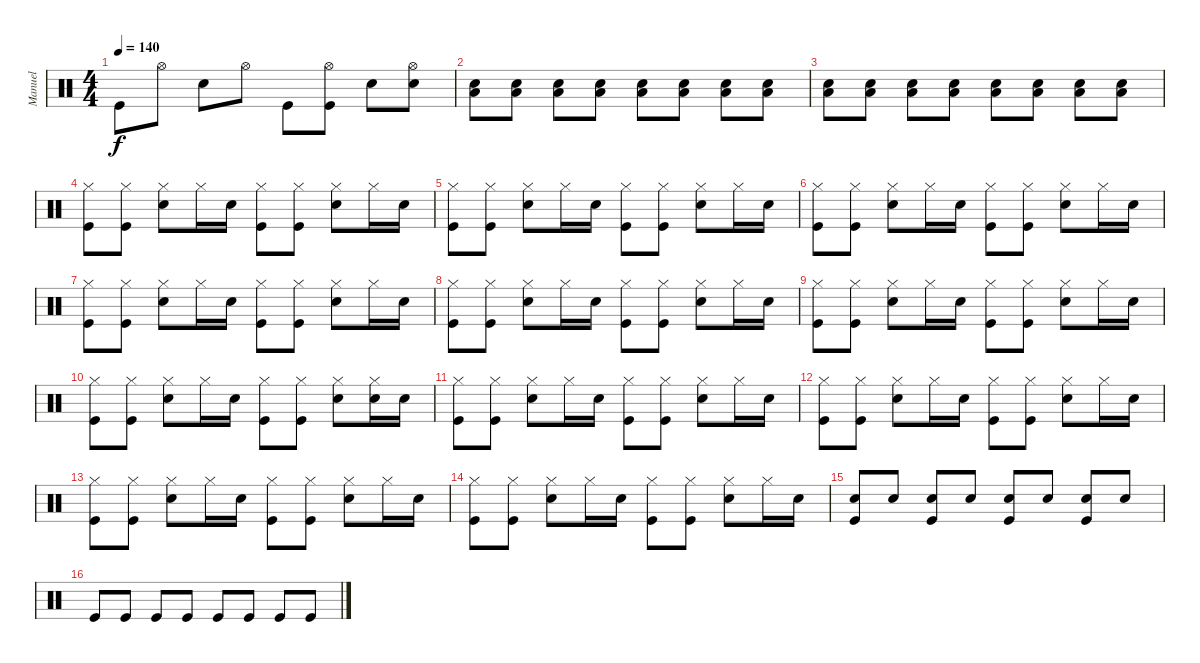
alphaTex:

\track ("Manuel" "Manuel") {instrument percussion}
\staff {score}
\articulation defaults
\ts (4 4)
\tempo 140
\clef neutral
\ks c "Kick (hit)".8{dy f} "Hi-Hat (open)".8 "Electric Snare (hit)".8 "Hi-Hat (open)".8 "Kick (hit)".8
("Kick (hit)" "Hi-Hat (open)").8 "Electric Snare (hit)".8 ("Electric Snare (hit)" "Hi-Hat (open)").8 |
("Low Tom (hit)" "Electric Snare (hit)").8 ("Low Tom (hit)" "Electric Snare (hit)").8 ("Low Tom (hit)" "Electric Snare (hit)").8 ("Low Tom (hit)" "Electric Snare (hit)").8 ("Low Tom (hit)" "Electric Snare (hit)").8 ("Low Tom (hit)" "Electric Snare (hit)").8 ("Low Tom (hit)" "Electric Snare (hit)").8 ("Low Tom (hit)" "Electric Snare (hit)").8 |
("Low Tom (hit)" "Electric Snare (hit)").8 ("Low Tom (hit)" "Electric Snare (hit)").8 ("Low Tom (hit)" "Electric Snare (hit)").8 ("Low Tom (hit)" "Electric Snare (hit)").8 ("Low Tom (hit)" "Electric Snare (hit)").8 ("Low Tom (hit)" "Electric Snare (hit)").8 ("Low Tom (hit)" "Electric Snare (hit)").8 ("Low Tom (hit)" "Electric Snare (hit)").8 |
("Hi-Hat (closed)" "Kick (hit)").8 ("Hi-Hat (closed)" "Kick (hit)").8 ("Hi-Hat (closed)" "Snare (hit) 2").8 "Hi-Hat (closed)".16 "Snare (hit) 2".16 ("Hi-Hat (closed)" "Kick (hit)").8 ("Hi-Hat (closed)" "Kick (hit)").8 ("Hi-Hat (closed)" "Snare (hit) 2").8 "Hi-Hat (closed)".16 "Snare (hit) 2".16 |
("Hi-Hat (closed)" "Kick (hit)").8 ("Hi-Hat (closed)" "Kick (hit)").8 ("Hi-Hat (closed)" "Snare (hit) 2").8 "Hi-Hat (closed)".16 "Snare (hit) 2".16 ("Hi-Hat (closed)" "Kick (hit)").8 ("Hi-Hat (closed)" "Kick (hit)").8 ("Hi-Hat (closed)" "Snare (hit) 2").8 "Hi-Hat (closed)".16 "Snare (hit) 2".16 |
("Hi-Hat (closed)" "Kick (hit)").8 ("Hi-Hat (closed)" "Kick (hit)").8 ("Hi-Hat (closed)" "Snare (hit) 2").8 "Hi-Hat (closed)".16 "Snare (hit) 2".16 ("Hi-Hat (closed)" "Kick (hit)").8 ("Hi-Hat (closed)" "Kick (hit)").8 ("Hi-Hat (closed)" "Snare (hit) 2").8 "Hi-Hat (closed)".16 "Snare (hit) 2".16 |
("Hi-Hat (closed)" "Kick (hit)").8 ("Hi-Hat (closed)" "Kick (hit)").8 ("Hi-Hat (closed)" "Snare (hit) 2").8 "Hi-Hat (closed)".16 "Snare (hit) 2".16 ("Hi-Hat (closed)" "Kick (hit)").8 ("Hi-Hat (closed)" "Kick (hit)").8 ("Hi-Hat (closed)" "Snare (hit) 2").8 "Hi-Hat (closed)".16 "Snare (hit) 2".16 |
("Hi-Hat (closed)" "Kick (hit)").8 ("Hi-Hat (closed)" "Kick (hit)").8 ("Hi-Hat (closed)" "Snare (hit) 2").8 "Hi-Hat (closed)".16 "Snare (hit) 2".16 ("Hi-Hat (closed)" "Kick (hit)").8 ("Hi-Hat (closed)" "Kick (hit)").8 ("Hi-Hat (closed)" "Snare (hit) 2").8 "Hi-Hat (closed)".16 "Snare (hit) 2".16 |
("Hi-Hat (closed)" "Kick (hit)").8 ("Hi-Hat (closed)" "Kick (hit)").8 ("Hi-Hat (closed)" "Snare (hit) 2").8 "Hi-Hat (closed)".16 "Snare (hit) 2".16 ("Hi-Hat (closed)" "Kick (hit)").8 ("Hi-Hat (closed)" "Kick (hit)").8 ("Hi-Hat (closed)" "Snare (hit) 2").8 "Hi-Hat (closed)".16 "Snare (hit) 2".16 |
("Hi-Hat (closed)" "Kick (hit)").8 ("Hi-Hat (closed)" "Kick (hit)").8 ("Hi-Hat (closed)" "Snare (hit) 2").8 "Hi-Hat (closed)".16 "Snare (hit) 2".16 ("Hi-Hat (closed)" "Kick (hit)").8 ("Hi-Hat (closed)" "Kick (hit)").8 ("Hi-Hat (closed)" "Snare (hit) 2").8 ("Hi-Hat (closed)" "Snare (hit) 2").16 "Snare (hit) 2".16 |
("Hi-Hat (closed)" "Kick (hit)").8 ("Hi-Hat (closed)" "Kick (hit)").8 ("Hi-Hat (closed)" "Snare (hit) 2").8 "Hi-Hat (closed)".16 "Snare (hit) 2".16 ("Hi-Hat (closed)" "Kick (hit)").8 ("Hi-Hat (closed)" "Kick (hit)").8 ("Hi-Hat (closed)" "Snare (hit) 2").8 "Hi-Hat (closed)".16 "Snare (hit) 2".16 |
("Hi-Hat (closed)" "Kick (hit)").8 ("Hi-Hat (closed)" "Kick (hit)").8 ("Hi-Hat (closed)" "Snare (hit) 2").8 "Hi-Hat (closed)".16 "Snare (hit) 2".16 ("Hi-Hat (closed)" "Kick (hit)").8 ("Hi-Hat (closed)" "Kick (hit)").8 ("Hi-Hat (closed)" "Snare (hit) 2").8 "Hi-Hat (closed)".16 "Snare (hit) 2".16 |
("Hi-Hat (closed)" "Kick (hit)").8 ("Hi-Hat (closed)" "Kick (hit)").8 ("Hi-Hat (closed)" "Snare (hit) 2").8 "Hi-Hat (closed)".16 "Snare (hit) 2".16 ("Hi-Hat (closed)" "Kick (hit)").8 ("Hi-Hat (closed)" "Kick (hit)").8 ("Hi-Hat (closed)" "Snare (hit) 2").8 "Hi-Hat (closed)".16 "Snare (hit) 2".16 |
("Hi-Hat (closed)" "Kick (hit)").8 ("Hi-Hat (closed)" "Kick (hit)").8 ("Hi-Hat (closed)" "Snare (hit) 2").8 "Hi-Hat (closed)".16 "Snare (hit) 2".16 ("Hi-Hat (closed)" "Kick (hit)").8 ("Hi-Hat (closed)" "Kick (hit)").8 ("Hi-Hat (closed)" "Snare (hit) 2").8 "Hi-Hat (closed)".16 "Snare (hit) 2".16 |
("Kick (hit)" "Electric Snare (hit)").8 "Electric Snare (hit)".8 ("Kick (hit)" "Electric Snare (hit)").8 "Electric Snare (hit)".8 ("Kick (hit)" "Electric Snare (hit)").8 "Electric Snare (hit)".8 ("Kick (hit)" "Electric Snare (hit)").8 "Electric Snare (hit)".8 |
"Kick (hit)".8 "Kick (hit)".8 "Kick (hit)".8 "Kick (hit)".8 "Kick (hit)".8 "Kick (hit)".8 "Kick (hit)".8 "Kick (hit)".8
